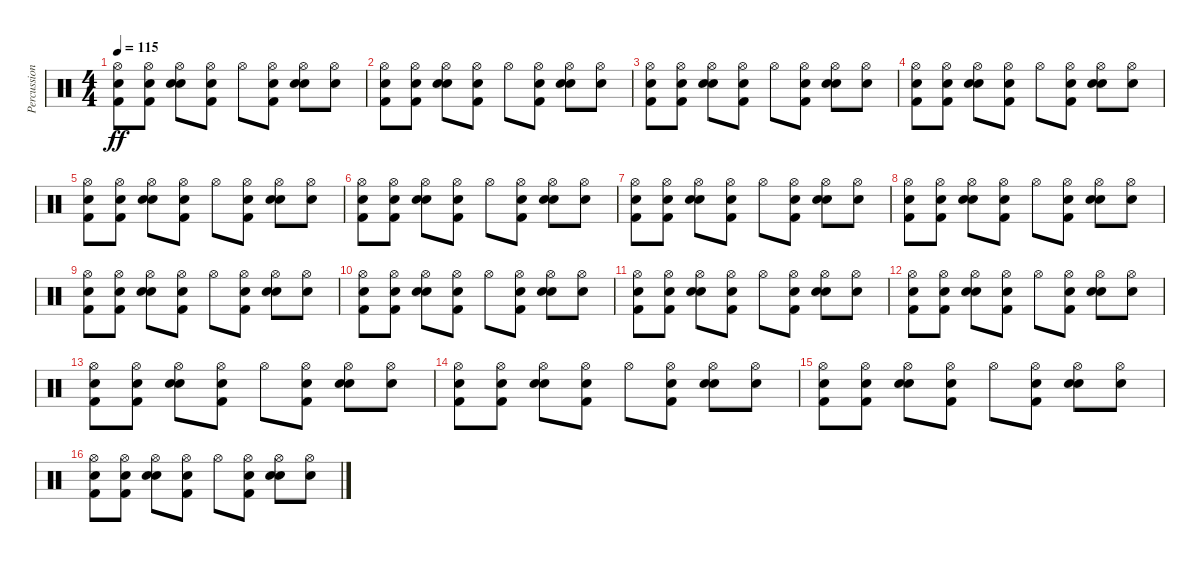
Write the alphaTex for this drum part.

\track ("Percussions / hands" "Percussion") {instrument percussion}
\staff {score}
\articulation defaults
\ts (4 4)
\tempo 115
\clef neutral
\ks c
("Hi-Hat (open)" "Kick (hit) 2" "Hand Clap (hit)").8{dy ff} ("Hi-Hat (open)" "Kick (hit) 2" "Hand Clap (hit)").8 ("Hi-Hat (open)" "Electric Snare (hit)" "Hand Clap (hit)").8 ("Hi-Hat (open)" "Kick (hit) 2" "Hand Clap (hit)").8 "Hi-Hat (open)".8 ("Hi-Hat (open)" "Kick (hit) 2" "Hand Clap (hit)").8 ("Hi-Hat (open)" "Electric Snare (hit)" "Hand Clap (hit)").8 ("Hi-Hat (open)" "Hand Clap (hit)").8 |
("Hi-Hat (open)" "Kick (hit) 2" "Hand Clap (hit)").8 ("Hi-Hat (open)" "Kick (hit) 2" "Hand Clap (hit)").8 ("Hi-Hat (open)" "Electric Snare (hit)" "Hand Clap (hit)").8 ("Hi-Hat (open)" "Kick (hit) 2" "Hand Clap (hit)").8 "Hi-Hat (open)".8 ("Hi-Hat (open)" "Kick (hit) 2" "Hand Clap (hit)").8 ("Hi-Hat (open)" "Electric Snare (hit)" "Hand Clap (hit)").8 ("Hi-Hat (open)" "Hand Clap (hit)").8 |
("Hi-Hat (open)" "Kick (hit) 2" "Hand Clap (hit)").8 ("Hi-Hat (open)" "Kick (hit) 2" "Hand Clap (hit)").8 ("Hi-Hat (open)" "Electric Snare (hit)" "Hand Clap (hit)").8 ("Hi-Hat (open)" "Kick (hit) 2" "Hand Clap (hit)").8 "Hi-Hat (open)".8 ("Hi-Hat (open)" "Kick (hit) 2" "Hand Clap (hit)").8 ("Hi-Hat (open)" "Electric Snare (hit)" "Hand Clap (hit)").8 ("Hi-Hat (open)" "Hand Clap (hit)").8 |
("Hi-Hat (open)" "Kick (hit) 2" "Hand Clap (hit)").8 ("Hi-Hat (open)" "Kick (hit) 2" "Hand Clap (hit)").8 ("Hi-Hat (open)" "Electric Snare (hit)" "Hand Clap (hit)").8 ("Hi-Hat (open)" "Kick (hit) 2" "Hand Clap (hit)").8 "Hi-Hat (open)".8 ("Hi-Hat (open)" "Kick (hit) 2" "Hand Clap (hit)").8 ("Hi-Hat (open)" "Electric Snare (hit)" "Hand Clap (hit)").8 ("Hi-Hat (open)" "Hand Clap (hit)").8 |
("Hi-Hat (open)" "Kick (hit) 2" "Hand Clap (hit)").8 ("Hi-Hat (open)" "Kick (hit) 2" "Hand Clap (hit)").8 ("Hi-Hat (open)" "Electric Snare (hit)" "Hand Clap (hit)").8 ("Hi-Hat (open)" "Kick (hit) 2" "Hand Clap (hit)").8 "Hi-Hat (open)".8 ("Hi-Hat (open)" "Kick (hit) 2" "Hand Clap (hit)").8 ("Hi-Hat (open)" "Electric Snare (hit)" "Hand Clap (hit)").8 ("Hi-Hat (open)" "Hand Clap (hit)").8 |
("Hi-Hat (open)" "Kick (hit) 2" "Hand Clap (hit)").8 ("Hi-Hat (open)" "Kick (hit) 2" "Hand Clap (hit)").8 ("Hi-Hat (open)" "Electric Snare (hit)" "Hand Clap (hit)").8 ("Hi-Hat (open)" "Kick (hit) 2" "Hand Clap (hit)").8 "Hi-Hat (open)".8 ("Hi-Hat (open)" "Kick (hit) 2" "Hand Clap (hit)").8 ("Hi-Hat (open)" "Electric Snare (hit)" "Hand Clap (hit)").8 ("Hi-Hat (open)" "Hand Clap (hit)").8 |
("Hi-Hat (open)" "Kick (hit) 2" "Hand Clap (hit)").8 ("Hi-Hat (open)" "Kick (hit) 2" "Hand Clap (hit)").8 ("Hi-Hat (open)" "Electric Snare (hit)" "Hand Clap (hit)").8 ("Hi-Hat (open)" "Kick (hit) 2" "Hand Clap (hit)").8 "Hi-Hat (open)".8 ("Hi-Hat (open)" "Kick (hit) 2" "Hand Clap (hit)").8 ("Hi-Hat (open)" "Electric Snare (hit)" "Hand Clap (hit)").8 ("Hi-Hat (open)" "Hand Clap (hit)").8 |
("Hi-Hat (open)" "Kick (hit) 2" "Hand Clap (hit)").8 ("Hi-Hat (open)" "Kick (hit) 2" "Hand Clap (hit)").8 ("Hi-Hat (open)" "Electric Snare (hit)" "Hand Clap (hit)").8 ("Hi-Hat (open)" "Kick (hit) 2" "Hand Clap (hit)").8 "Hi-Hat (open)".8 ("Hi-Hat (open)" "Kick (hit) 2" "Hand Clap (hit)").8 ("Hi-Hat (open)" "Electric Snare (hit)" "Hand Clap (hit)").8 ("Hi-Hat (open)" "Hand Clap (hit)").8 |
("Hi-Hat (open)" "Kick (hit) 2" "Hand Clap (hit)").8 ("Hi-Hat (open)" "Kick (hit) 2" "Hand Clap (hit)").8 ("Hi-Hat (open)" "Electric Snare (hit)" "Hand Clap (hit)").8 ("Hi-Hat (open)" "Kick (hit) 2" "Hand Clap (hit)").8 "Hi-Hat (open)".8 ("Hi-Hat (open)" "Kick (hit) 2" "Hand Clap (hit)").8 ("Hi-Hat (open)" "Electric Snare (hit)" "Hand Clap (hit)").8 ("Hi-Hat (open)" "Hand Clap (hit)").8 |
("Hi-Hat (open)" "Kick (hit) 2" "Hand Clap (hit)").8 ("Hi-Hat (open)" "Kick (hit) 2" "Hand Clap (hit)").8 ("Hi-Hat (open)" "Electric Snare (hit)" "Hand Clap (hit)").8 ("Hi-Hat (open)" "Kick (hit) 2" "Hand Clap (hit)").8 "Hi-Hat (open)".8 ("Hi-Hat (open)" "Kick (hit) 2" "Hand Clap (hit)").8 ("Hi-Hat (open)" "Electric Snare (hit)" "Hand Clap (hit)").8 ("Hi-Hat (open)" "Hand Clap (hit)").8 |
("Hi-Hat (open)" "Kick (hit) 2" "Hand Clap (hit)").8 ("Hi-Hat (open)" "Kick (hit) 2" "Hand Clap (hit)").8 ("Hi-Hat (open)" "Electric Snare (hit)" "Hand Clap (hit)").8 ("Hi-Hat (open)" "Kick (hit) 2" "Hand Clap (hit)").8 "Hi-Hat (open)".8 ("Hi-Hat (open)" "Kick (hit) 2" "Hand Clap (hit)").8 ("Hi-Hat (open)" "Electric Snare (hit)" "Hand Clap (hit)").8 ("Hi-Hat (open)" "Hand Clap (hit)").8 |
("Hi-Hat (open)" "Kick (hit) 2" "Hand Clap (hit)").8 ("Hi-Hat (open)" "Kick (hit) 2" "Hand Clap (hit)").8 ("Hi-Hat (open)" "Electric Snare (hit)" "Hand Clap (hit)").8 ("Hi-Hat (open)" "Kick (hit) 2" "Hand Clap (hit)").8 "Hi-Hat (open)".8 ("Hi-Hat (open)" "Kick (hit) 2" "Hand Clap (hit)").8 ("Hi-Hat (open)" "Electric Snare (hit)" "Hand Clap (hit)").8 ("Hi-Hat (open)" "Hand Clap (hit)").8 |
("Hi-Hat (open)" "Kick (hit) 2" "Hand Clap (hit)").8 ("Hi-Hat (open)" "Kick (hit) 2" "Hand Clap (hit)").8 ("Hi-Hat (open)" "Electric Snare (hit)" "Hand Clap (hit)").8 ("Hi-Hat (open)" "Kick (hit) 2" "Hand Clap (hit)").8 "Hi-Hat (open)".8 ("Hi-Hat (open)" "Kick (hit) 2" "Hand Clap (hit)").8 ("Hi-Hat (open)" "Electric Snare (hit)" "Hand Clap (hit)").8 ("Hi-Hat (open)" "Hand Clap (hit)").8 |
("Hi-Hat (open)" "Kick (hit) 2" "Hand Clap (hit)").8 ("Hi-Hat (open)" "Kick (hit) 2" "Hand Clap (hit)").8 ("Hi-Hat (open)" "Electric Snare (hit)" "Hand Clap (hit)").8 ("Hi-Hat (open)" "Kick (hit) 2" "Hand Clap (hit)").8 "Hi-Hat (open)".8 ("Hi-Hat (open)" "Kick (hit) 2" "Hand Clap (hit)").8 ("Hi-Hat (open)" "Electric Snare (hit)" "Hand Clap (hit)").8 ("Hi-Hat (open)" "Hand Clap (hit)").8 |
("Hi-Hat (open)" "Kick (hit) 2" "Hand Clap (hit)").8 ("Hi-Hat (open)" "Kick (hit) 2" "Hand Clap (hit)").8 ("Hi-Hat (open)" "Electric Snare (hit)" "Hand Clap (hit)").8 ("Hi-Hat (open)" "Kick (hit) 2" "Hand Clap (hit)").8 "Hi-Hat (open)".8 ("Hi-Hat (open)" "Kick (hit) 2" "Hand Clap (hit)").8 ("Hi-Hat (open)" "Electric Snare (hit)" "Hand Clap (hit)").8 ("Hi-Hat (open)" "Hand Clap (hit)").8 |
("Hi-Hat (open)" "Kick (hit) 2" "Hand Clap (hit)").8 ("Hi-Hat (open)" "Kick (hit) 2" "Hand Clap (hit)").8 ("Hi-Hat (open)" "Electric Snare (hit)" "Hand Clap (hit)").8 ("Hi-Hat (open)" "Kick (hit) 2" "Hand Clap (hit)").8 "Hi-Hat (open)".8 ("Hi-Hat (open)" "Kick (hit) 2" "Hand Clap (hit)").8 ("Hi-Hat (open)" "Electric Snare (hit)" "Hand Clap (hit)").8 ("Hi-Hat (open)" "Hand Clap (hit)").8
